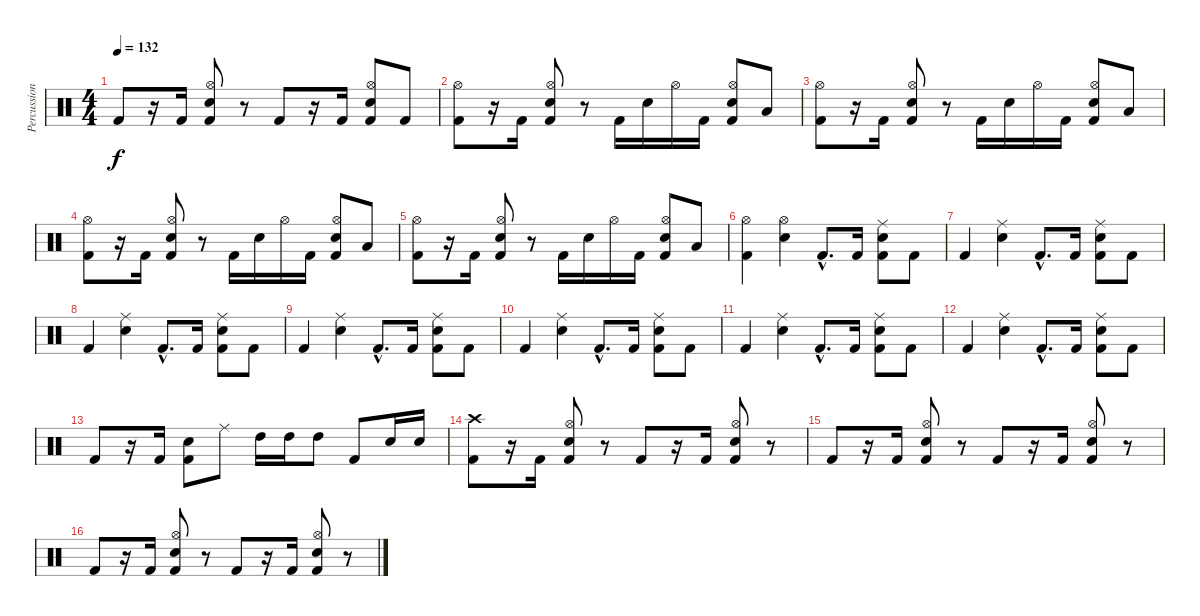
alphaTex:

\track ("Percussion" "Percussion") {instrument percussion}
\staff {score}
\articulation defaults
\ts (4 4)
\tempo 132
\clef neutral
\ks c "Kick (hit) 2".8{dy f}
r.16 "Kick (hit) 2".16 ("Hi-Hat (open)" "Snare (hit) 2" "Kick (hit) 2").8 r.8 "Kick (hit) 2".8 r.16 "Kick (hit) 2".16 ("Hi-Hat (open)" "Snare (hit) 2" "Kick (hit) 2").8 "Kick (hit) 2".8 |
("Hi-Hat (open)" "Kick (hit) 2").8 r.16 "Kick (hit) 2".16 ("Hi-Hat (open)" "Snare (hit) 2" "Kick (hit) 2").8 r.8 "Kick (hit) 2".16 "Snare (hit) 2".16 "Hi-Hat (open)".16 "Kick (hit) 2".16 ("Hi-Hat (open)" "Snare (hit) 2" "Kick (hit) 2").8 "Low Floor Tom (hit)".8 |
("Hi-Hat (open)" "Kick (hit) 2").8 r.16 "Kick (hit) 2".16 ("Hi-Hat (open)" "Snare (hit) 2" "Kick (hit) 2").8 r.8 "Kick (hit) 2".16 "Snare (hit) 2".16 "Hi-Hat (open)".16 "Kick (hit) 2".16 ("Hi-Hat (open)" "Snare (hit) 2" "Kick (hit) 2").8 "Low Floor Tom (hit)".8 |
("Hi-Hat (open)" "Kick (hit) 2").8 r.16 "Kick (hit) 2".16 ("Hi-Hat (open)" "Snare (hit) 2" "Kick (hit) 2").8 r.8 "Kick (hit) 2".16 "Snare (hit) 2".16 "Hi-Hat (open)".16 "Kick (hit) 2".16 ("Hi-Hat (open)" "Snare (hit) 2" "Kick (hit) 2").8 "Low Floor Tom (hit)".8 |
("Hi-Hat (open)" "Kick (hit) 2").8 r.16 "Kick (hit) 2".16 ("Hi-Hat (open)" "Snare (hit) 2" "Kick (hit) 2").8 r.8 "Kick (hit) 2".16 "Snare (hit) 2".16 "Hi-Hat (open)".16 "Kick (hit) 2".16 ("Hi-Hat (open)" "Snare (hit) 2" "Kick (hit) 2").8 "Low Floor Tom (hit)".8 |
("Hi-Hat (open)" "Kick (hit) 2").4 ("Hi-Hat (open)" "Snare (hit) 2").4 "Kick (hit) 2"{hac}.8{d} "Kick (hit) 2".16 ("Ride (middle)" "Snare (hit) 2" "Kick (hit) 2").8 "Kick (hit) 2".8 |
"Kick (hit) 2".4 ("Ride (middle)" "Snare (hit) 2").4 "Kick (hit) 2"{hac}.8{d} "Kick (hit) 2".16 ("Ride (middle)" "Snare (hit) 2" "Kick (hit) 2").8 "Kick (hit) 2".8 |
"Kick (hit) 2".4 ("Ride (middle)" "Snare (hit) 2").4 "Kick (hit) 2"{hac}.8{d} "Kick (hit) 2".16 ("Ride (middle)" "Snare (hit) 2" "Kick (hit) 2").8 "Kick (hit) 2".8 |
"Kick (hit) 2".4 ("Ride (middle)" "Snare (hit) 2").4 "Kick (hit) 2"{hac}.8{d} "Kick (hit) 2".16 ("Ride (middle)" "Snare (hit) 2" "Kick (hit) 2").8 "Kick (hit) 2".8 |
"Kick (hit) 2".4 ("Ride (middle)" "Snare (hit) 2").4 "Kick (hit) 2"{hac}.8{d} "Kick (hit) 2".16 ("Ride (middle)" "Snare (hit) 2" "Kick (hit) 2").8 "Kick (hit) 2".8 |
"Kick (hit) 2".4 ("Ride (middle)" "Snare (hit) 2").4 "Kick (hit) 2"{hac}.8{d} "Kick (hit) 2".16 ("Ride (middle)" "Snare (hit) 2" "Kick (hit) 2").8 "Kick (hit) 2".8 |
"Kick (hit) 2".4 ("Ride (middle)" "Snare (hit) 2").4 "Kick (hit) 2"{hac}.8{d} "Kick (hit) 2".16 ("Ride (middle)" "Snare (hit) 2" "Kick (hit) 2").8 "Kick (hit) 2".8 |
"Kick (hit) 2".8 r.16 "Kick (hit) 2".16 ("Snare (hit) 2" "Kick (hit) 2").8 "Ride (middle)".8 "High Tom (hit)".16 "High Tom (hit)".16 "High Tom (hit)".8 "Kick (hit) 2".8 "Snare (hit) 2".16 "Snare (hit) 2".16 |
("Crash high (hit)" "Kick (hit) 2").8 r.16 "Kick (hit) 2".16 ("Hi-Hat (open)" "Snare (hit) 2" "Kick (hit) 2").8 r.8 "Kick (hit) 2".8 r.16 "Kick (hit) 2".16 ("Hi-Hat (open)" "Snare (hit) 2" "Kick (hit) 2").8 r.8 |
"Kick (hit) 2".8 r.16 "Kick (hit) 2".16 ("Hi-Hat (open)" "Snare (hit) 2" "Kick (hit) 2").8 r.8 "Kick (hit) 2".8 r.16 "Kick (hit) 2".16 ("Hi-Hat (open)" "Snare (hit) 2" "Kick (hit) 2").8 r.8 |
"Kick (hit) 2".8 r.16 "Kick (hit) 2".16 ("Hi-Hat (open)" "Snare (hit) 2" "Kick (hit) 2").8 r.8 "Kick (hit) 2".8 r.16 "Kick (hit) 2".16 ("Hi-Hat (open)" "Snare (hit) 2" "Kick (hit) 2").8 r.8
